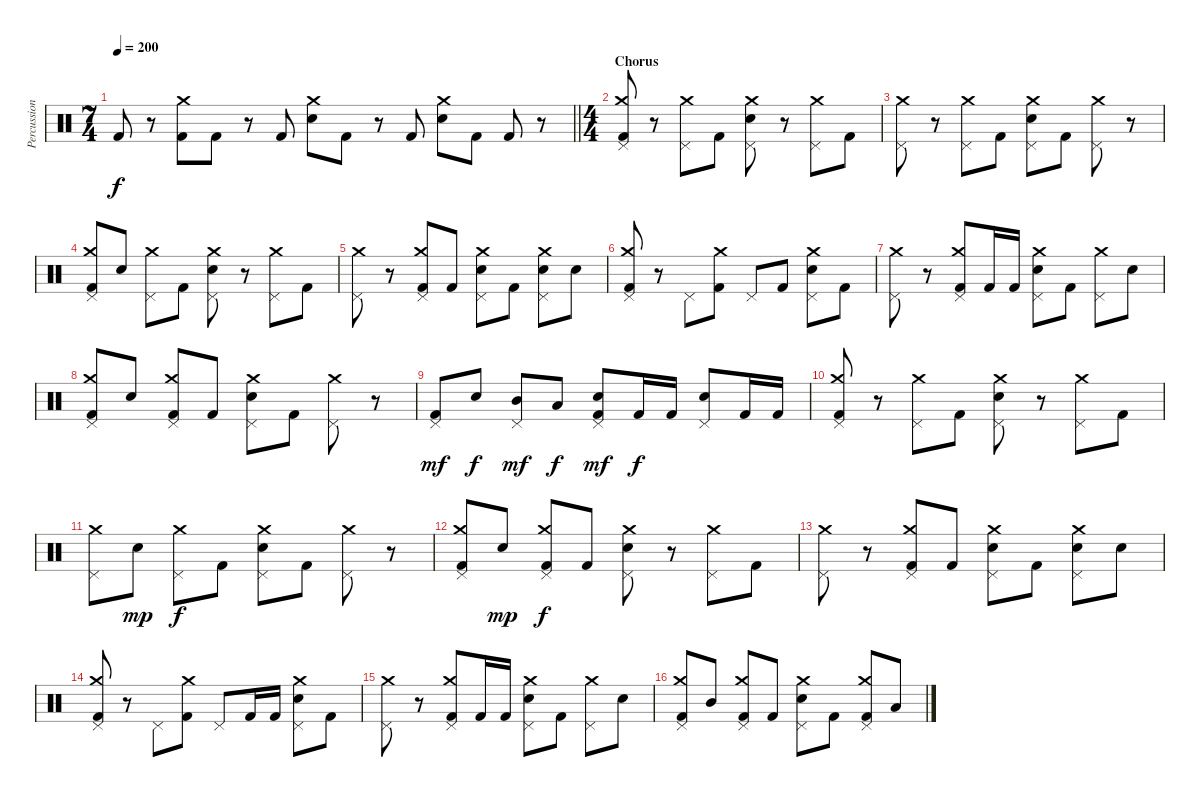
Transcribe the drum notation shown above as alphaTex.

\track ("Percussions" "Percussion") {instrument percussion}
\staff {score}
\articulation defaults
\ts (7 4)
\tempo 200
\clef neutral
\barLineRight lightlight
\ks c "Kick (hit) 2".8{dy f}
r.8 ("Crash medium (hit)" "Kick (hit) 2").8 "Kick (hit) 2".8 r.8 "Kick (hit) 2".8 ("Crash medium (hit)" "Electric Snare (hit)").8 "Kick (hit) 2".8 r.8 "Kick (hit) 2".8 ("Crash medium (hit)" "Electric Snare (hit)").8 "Kick (hit) 2".8 "Kick (hit) 2".8 r.8 |
\ts (4 4)
\section ("" "Chorus")
("Crash medium (hit)" "Pedal Hi-Hat (hit)" "Kick (hit) 2").8 r.8 ("Crash medium (hit)" "Pedal Hi-Hat (hit)").8 "Kick (hit) 2".8 ("Crash medium (hit)" "Pedal Hi-Hat (hit)" "Electric Snare (hit)").8 r.8 ("Crash medium (hit)" "Pedal Hi-Hat (hit)").8 "Kick (hit) 2".8 |
("Crash medium (hit)" "Pedal Hi-Hat (hit)").8 r.8 ("Crash medium (hit)" "Pedal Hi-Hat (hit)").8 "Kick (hit) 2".8 ("Crash medium (hit)" "Pedal Hi-Hat (hit)" "Electric Snare (hit)").8 "Kick (hit) 2".8 ("Crash medium (hit)" "Pedal Hi-Hat (hit)").8 r.8 |
("Crash medium (hit)" "Pedal Hi-Hat (hit)" "Kick (hit) 2").8 "Electric Snare (hit)".8 ("Crash medium (hit)" "Pedal Hi-Hat (hit)").8 "Kick (hit) 2".8 ("Crash medium (hit)" "Pedal Hi-Hat (hit)" "Electric Snare (hit)").8 r.8 ("Crash medium (hit)" "Pedal Hi-Hat (hit)").8 "Kick (hit) 2".8 |
("Crash medium (hit)" "Pedal Hi-Hat (hit)").8 r.8 ("Crash medium (hit)" "Pedal Hi-Hat (hit)" "Kick (hit) 2").8 "Kick (hit) 2".8 ("Crash medium (hit)" "Pedal Hi-Hat (hit)" "Electric Snare (hit)").8 "Kick (hit) 2".8 ("Crash medium (hit)" "Pedal Hi-Hat (hit)" "Electric Snare (hit)").8 "Electric Snare (hit)".8 |
("Crash medium (hit)" "Pedal Hi-Hat (hit)" "Kick (hit) 2").8 r.8 "Pedal Hi-Hat (hit)".8 ("Crash medium (hit)" "Kick (hit) 2").8 "Pedal Hi-Hat (hit)".8 "Kick (hit) 2".8 ("Crash medium (hit)" "Pedal Hi-Hat (hit)" "Electric Snare (hit)").8 "Kick (hit) 2".8 |
("Crash medium (hit)" "Pedal Hi-Hat (hit)").8 r.8 ("Crash medium (hit)" "Pedal Hi-Hat (hit)" "Kick (hit) 2").8 "Kick (hit) 2".16 "Kick (hit) 2".16 ("Crash medium (hit)" "Pedal Hi-Hat (hit)" "Electric Snare (hit)").8 "Kick (hit) 2".8 ("Crash medium (hit)" "Pedal Hi-Hat (hit)").8 "Electric Snare (hit)".8 |
("Crash medium (hit)" "Pedal Hi-Hat (hit)" "Kick (hit) 2").8 "Electric Snare (hit)".8 ("Crash medium (hit)" "Pedal Hi-Hat (hit)" "Kick (hit) 2").8 "Kick (hit) 2".8 ("Crash medium (hit)" "Pedal Hi-Hat (hit)" "Electric Snare (hit)").8 "Kick (hit) 2".8 ("Crash medium (hit)" "Pedal Hi-Hat (hit)").8 r.8 |
("Pedal Hi-Hat (hit)" "Kick (hit) 2").8{dy mf} "Electric Snare (hit)".8{dy f} ("Pedal Hi-Hat (hit)" "Mid Tom (hit)").8{dy mf} "Low Tom (hit)".8{dy f} ("Pedal Hi-Hat (hit)" "Electric Snare (hit)" "Kick (hit) 2").8{dy mf} "Kick (hit) 2".16{dy f} "Kick (hit) 2".16 ("Pedal Hi-Hat (hit)" "Electric Snare (hit)").8 "Kick (hit) 2".16 "Kick (hit) 2".16 |
("Crash medium (hit)" "Pedal Hi-Hat (hit)" "Kick (hit) 2").8 r.8 ("Crash medium (hit)" "Pedal Hi-Hat (hit)").8 "Kick (hit) 2".8 ("Crash medium (hit)" "Pedal Hi-Hat (hit)" "Electric Snare (hit)").8 r.8 ("Crash medium (hit)" "Pedal Hi-Hat (hit)").8 "Kick (hit) 2".8 |
("Crash medium (hit)" "Pedal Hi-Hat (hit)").8 "Electric Snare (hit)".8{dy mp} ("Crash medium (hit)" "Pedal Hi-Hat (hit)").8{dy f} "Kick (hit) 2".8 ("Crash medium (hit)" "Pedal Hi-Hat (hit)" "Electric Snare (hit)").8 "Kick (hit) 2".8 ("Crash medium (hit)" "Pedal Hi-Hat (hit)").8 r.8 |
("Crash medium (hit)" "Pedal Hi-Hat (hit)" "Kick (hit) 2").8 "Electric Snare (hit)".8{dy mp} ("Crash medium (hit)" "Pedal Hi-Hat (hit)" "Kick (hit) 2").8{dy f} "Kick (hit) 2".8 ("Crash medium (hit)" "Pedal Hi-Hat (hit)" "Electric Snare (hit)").8 r.8 ("Crash medium (hit)" "Pedal Hi-Hat (hit)").8 "Kick (hit) 2".8 |
("Crash medium (hit)" "Pedal Hi-Hat (hit)").8 r.8 ("Crash medium (hit)" "Pedal Hi-Hat (hit)" "Kick (hit) 2").8 "Kick (hit) 2".8 ("Crash medium (hit)" "Pedal Hi-Hat (hit)" "Electric Snare (hit)").8 "Kick (hit) 2".8 ("Crash medium (hit)" "Pedal Hi-Hat (hit)" "Electric Snare (hit)").8 "Electric Snare (hit)".8 |
("Crash medium (hit)" "Pedal Hi-Hat (hit)" "Kick (hit) 2").8 r.8 "Pedal Hi-Hat (hit)".8 ("Crash medium (hit)" "Kick (hit) 2").8 "Pedal Hi-Hat (hit)".8 "Kick (hit) 2".16 "Kick (hit) 2".16 ("Crash medium (hit)" "Pedal Hi-Hat (hit)" "Electric Snare (hit)").8 "Kick (hit) 2".8 |
("Crash medium (hit)" "Pedal Hi-Hat (hit)").8 r.8 ("Crash medium (hit)" "Pedal Hi-Hat (hit)" "Kick (hit) 2").8 "Kick (hit) 2".16 "Kick (hit) 2".16 ("Crash medium (hit)" "Pedal Hi-Hat (hit)" "Electric Snare (hit)").8 "Kick (hit) 2".8 ("Crash medium (hit)" "Pedal Hi-Hat (hit)").8 "Electric Snare (hit)".8 |
("Crash medium (hit)" "Pedal Hi-Hat (hit)" "Kick (hit) 2").8 "Mid Tom (hit)".8 ("Crash medium (hit)" "Pedal Hi-Hat (hit)" "Kick (hit) 2").8 "Kick (hit) 2".8 ("Crash medium (hit)" "Pedal Hi-Hat (hit)" "Electric Snare (hit)").8 "Kick (hit) 2".8 ("Crash medium (hit)" "Pedal Hi-Hat (hit)" "Kick (hit) 2").8 "Low Tom (hit)".8
